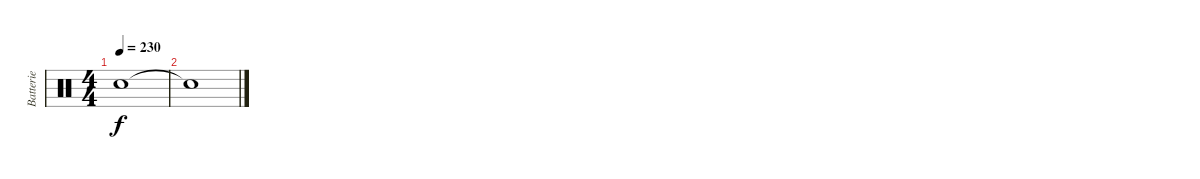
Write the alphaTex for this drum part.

\track ("Batterie" "Batterie") {instrument percussion}
\staff {score}
\articulation defaults
\ts (4 4)
\tempo 230
\clef neutral
\ks c "Snare (hit)"{t}.1{dy f}
|
"Snare (hit)"{t}.1
